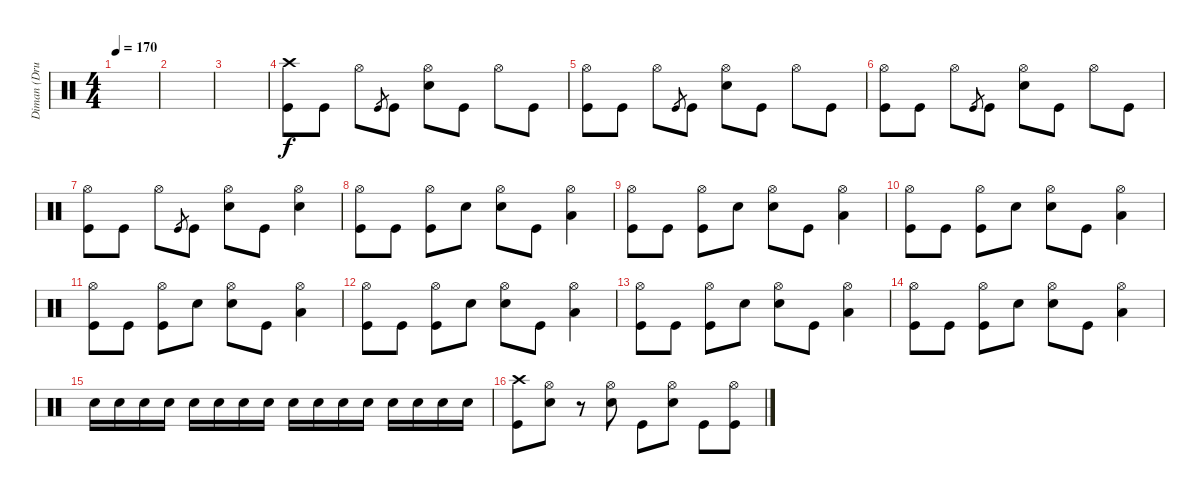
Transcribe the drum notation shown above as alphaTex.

\track ("Diman (Drums)" "Diman (Dru") {instrument percussion}
\staff {score}
\articulation defaults
\ts (4 4)
\tempo 170
\clef neutral
\ks c
|
|
|
("Kick (hit)" "Crash high (hit)").8 "Kick (hit)".8 "Hi-Hat (open)".8 "Kick (hit)".8{gr} "Kick (hit)".8 ("Snare (hit) 2" "Hi-Hat (open)").8 "Kick (hit)".8 "Hi-Hat (open)".8 "Kick (hit)".8 |
("Kick (hit)" "Hi-Hat (open)").8 "Kick (hit)".8 "Hi-Hat (open)".8 "Kick (hit)".8{gr} "Kick (hit)".8 ("Snare (hit) 2" "Hi-Hat (open)").8 "Kick (hit)".8 "Hi-Hat (open)".8 "Kick (hit)".8 |
("Kick (hit)" "Hi-Hat (open)").8 "Kick (hit)".8 "Hi-Hat (open)".8 "Kick (hit)".8{gr} "Kick (hit)".8 ("Snare (hit) 2" "Hi-Hat (open)").8 "Kick (hit)".8 "Hi-Hat (open)".8 "Kick (hit)".8 |
("Kick (hit)" "Hi-Hat (open)").8 "Kick (hit)".8 "Hi-Hat (open)".8 "Kick (hit)".8{gr} "Kick (hit)".8 ("Snare (hit) 2" "Hi-Hat (open)").8 "Kick (hit)".8 ("Snare (hit) 2" "Hi-Hat (open)").4 |
("Kick (hit)" "Hi-Hat (open)").8 "Kick (hit)".8 ("Kick (hit)" "Hi-Hat (open)").8 "Snare (hit) 2".8 ("Snare (hit) 2" "Hi-Hat (open)").8 "Kick (hit)".8 ("Low Tom (hit)" "Hi-Hat (open)").4 |
("Hi-Hat (open)" "Kick (hit)").8 "Kick (hit)".8 ("Hi-Hat (open)" "Kick (hit)").8 "Snare (hit) 2".8 ("Hi-Hat (open)" "Snare (hit) 2").8 "Kick (hit)".8 ("Hi-Hat (open)" "Low Tom (hit)").4 |
("Kick (hit)" "Hi-Hat (open)").8 "Kick (hit)".8 ("Kick (hit)" "Hi-Hat (open)").8 "Snare (hit) 2".8 ("Snare (hit) 2" "Hi-Hat (open)").8 "Kick (hit)".8 ("Low Tom (hit)" "Hi-Hat (open)").4 |
("Hi-Hat (open)" "Kick (hit)").8 "Kick (hit)".8 ("Hi-Hat (open)" "Kick (hit)").8 "Snare (hit) 2".8 ("Hi-Hat (open)" "Snare (hit) 2").8 "Kick (hit)".8 ("Hi-Hat (open)" "Low Tom (hit)").4 |
("Hi-Hat (open)" "Kick (hit)").8 "Kick (hit)".8 ("Hi-Hat (open)" "Kick (hit)").8 "Snare (hit) 2".8 ("Hi-Hat (open)" "Snare (hit) 2").8 "Kick (hit)".8 ("Hi-Hat (open)" "Low Tom (hit)").4 |
("Hi-Hat (open)" "Kick (hit)").8 "Kick (hit)".8 ("Hi-Hat (open)" "Kick (hit)").8 "Snare (hit) 2".8 ("Hi-Hat (open)" "Snare (hit) 2").8 "Kick (hit)".8 ("Hi-Hat (open)" "Low Tom (hit)").4 |
("Hi-Hat (open)" "Kick (hit)").8 "Kick (hit)".8 ("Hi-Hat (open)" "Kick (hit)").8 "Snare (hit) 2".8 ("Hi-Hat (open)" "Snare (hit) 2").8 "Kick (hit)".8 ("Hi-Hat (open)" "Low Tom (hit)").4 |
"Snare (hit) 2".16 "Snare (hit) 2".16 "Snare (hit) 2".16 "Snare (hit) 2".16 "Snare (hit) 2".16 "Snare (hit) 2".16 "Snare (hit) 2".16 "Snare (hit) 2".16 "Snare (hit) 2".16 "Snare (hit) 2".16 "Snare (hit) 2".16 "Snare (hit) 2".16 "Snare (hit) 2".16 "Snare (hit) 2".16 "Snare (hit) 2".16 "Snare (hit) 2".16 |
("Kick (hit)" "Crash high (hit)").8 ("Snare (hit) 2" "Hi-Hat (open)").8 r.8 ("Snare (hit) 2" "Hi-Hat (open)").8 "Kick (hit)".8 ("Snare (hit) 2" "Hi-Hat (open)").8 "Kick (hit)".8 ("Hi-Hat (open)" "Kick (hit)").8
